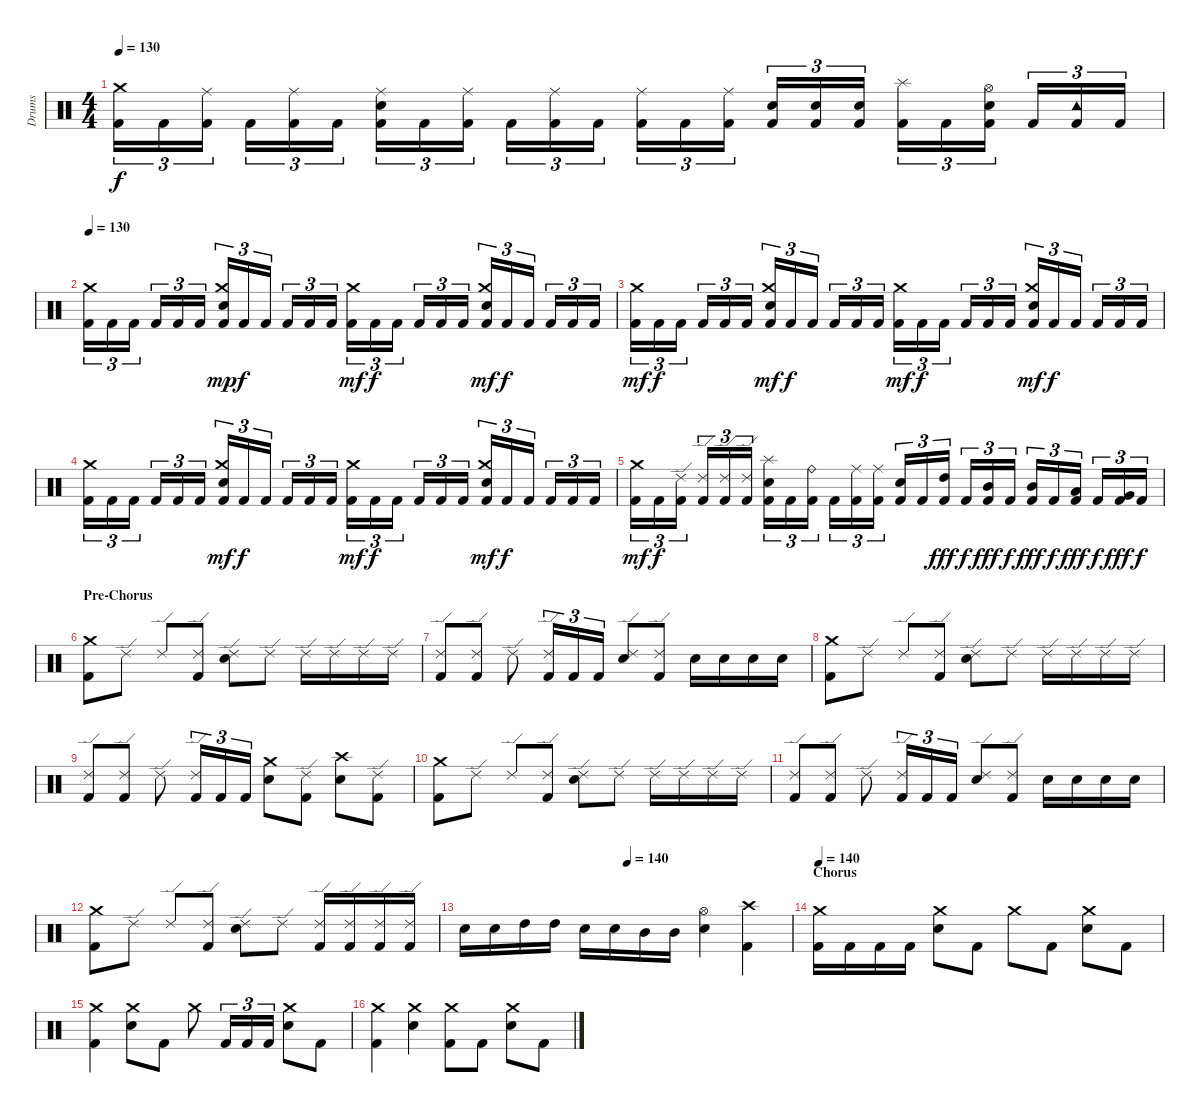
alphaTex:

\track ("Drums" "Drums") {instrument percussion}
\staff {score}
\articulation defaults
\ts (4 4)
\tempo 130
\clef neutral
\ks c
("Kick (hit) 2" "Crash medium (hit)").16{tu (3 2) dy f} "Kick (hit) 2".16{tu (3 2)} ("Kick (hit) 2" "Ride (middle)").16{tu (3 2)} "Kick (hit) 2".16{tu (3 2)} ("Kick (hit) 2" "Ride (middle)").16{tu (3 2)} "Kick (hit) 2".16{tu (3 2)} ("Kick (hit) 2" "Electric Snare (hit)" "Ride (middle)").16{tu (3 2)} "Kick (hit) 2".16{tu (3 2)} ("Kick (hit) 2" "Ride (middle)").16{tu (3 2)} "Kick (hit) 2".16{tu (3 2)} ("Kick (hit) 2" "Ride (middle)").16{tu (3 2)} "Kick (hit) 2".16{tu (3 2)} ("Kick (hit) 2" "Ride (middle)").16{tu (3 2)} "Kick (hit) 2".16{tu (3 2)} ("Kick (hit) 2" "Ride (middle)").16{tu (3 2)} ("Kick (hit) 2" "Electric Snare (hit)").16{tu (3 2)} ("Kick (hit) 2" "Electric Snare (hit)").16{tu (3 2)} ("Kick (hit) 2" "Electric Snare (hit)").16{tu (3 2)} ("Kick (hit) 2" "Splash (hit)").16{tu (3 2)} "Kick (hit) 2".16{tu (3 2)} ("Kick (hit) 2" "Electric Snare (hit)" "Hi-Hat (open)").16{tu (3 2)} "Kick (hit) 2".16{tu (3 2)} ("Kick (hit) 2" "Tambourine (hit)").16{tu (3 2)} "Kick (hit) 2".16{tu (3 2)} |
\tempo 130
("Kick (hit) 2" "Crash medium (hit)").16{tu (3 2)} "Kick (hit) 2".16{tu (3 2)} "Kick (hit) 2".16{tu (3 2)} "Kick (hit) 2".16{tu (3 2)} "Kick (hit) 2".16{tu (3 2)} "Kick (hit) 2".16{tu (3 2)} ("Kick (hit) 2" "Electric Snare (hit)" "Crash medium (hit)").16{tu (3 2) dy mp} "Kick (hit) 2".16{tu (3 2) dy f} "Kick (hit) 2".16{tu (3 2)} "Kick (hit) 2".16{tu (3 2)} "Kick (hit) 2".16{tu (3 2)} "Kick (hit) 2".16{tu (3 2)} ("Kick (hit) 2" "Crash medium (hit)").16{tu (3 2) dy mf} "Kick (hit) 2".16{tu (3 2) dy f} "Kick (hit) 2".16{tu (3 2)} "Kick (hit) 2".16{tu (3 2)} "Kick (hit) 2".16{tu (3 2)} "Kick (hit) 2".16{tu (3 2)} ("Kick (hit) 2" "Electric Snare (hit)" "Crash medium (hit)").16{tu (3 2) dy mf} "Kick (hit) 2".16{tu (3 2) dy f} "Kick (hit) 2".16{tu (3 2)} "Kick (hit) 2".16{tu (3 2)} "Kick (hit) 2".16{tu (3 2)} "Kick (hit) 2".16{tu (3 2)} |
("Kick (hit) 2" "Crash medium (hit)").16{tu (3 2) dy mf} "Kick (hit) 2".16{tu (3 2) dy f} "Kick (hit) 2".16{tu (3 2)} "Kick (hit) 2".16{tu (3 2)} "Kick (hit) 2".16{tu (3 2)} "Kick (hit) 2".16{tu (3 2)} ("Kick (hit) 2" "Electric Snare (hit)" "Crash medium (hit)").16{tu (3 2) dy mf} "Kick (hit) 2".16{tu (3 2) dy f} "Kick (hit) 2".16{tu (3 2)} "Kick (hit) 2".16{tu (3 2)} "Kick (hit) 2".16{tu (3 2)} "Kick (hit) 2".16{tu (3 2)} ("Kick (hit) 2" "Crash medium (hit)").16{tu (3 2) dy mf} "Kick (hit) 2".16{tu (3 2) dy f} "Kick (hit) 2".16{tu (3 2)} "Kick (hit) 2".16{tu (3 2)} "Kick (hit) 2".16{tu (3 2)} "Kick (hit) 2".16{tu (3 2)} ("Kick (hit) 2" "Electric Snare (hit)" "Crash medium (hit)").16{tu (3 2) dy mf} "Kick (hit) 2".16{tu (3 2) dy f} "Kick (hit) 2".16{tu (3 2)} "Kick (hit) 2".16{tu (3 2)} "Kick (hit) 2".16{tu (3 2)} "Kick (hit) 2".16{tu (3 2)} |
("Kick (hit) 2" "Crash medium (hit)").16{tu (3 2)} "Kick (hit) 2".16{tu (3 2)} "Kick (hit) 2".16{tu (3 2)} "Kick (hit) 2".16{tu (3 2)} "Kick (hit) 2".16{tu (3 2)} "Kick (hit) 2".16{tu (3 2)} ("Kick (hit) 2" "Electric Snare (hit)" "Crash medium (hit)").16{tu (3 2) dy mf} "Kick (hit) 2".16{tu (3 2) dy f} "Kick (hit) 2".16{tu (3 2)} "Kick (hit) 2".16{tu (3 2)} "Kick (hit) 2".16{tu (3 2)} "Kick (hit) 2".16{tu (3 2)} ("Kick (hit) 2" "Crash medium (hit)").16{tu (3 2) dy mf} "Kick (hit) 2".16{tu (3 2) dy f} "Kick (hit) 2".16{tu (3 2)} "Kick (hit) 2".16{tu (3 2)} "Kick (hit) 2".16{tu (3 2)} "Kick (hit) 2".16{tu (3 2)} ("Kick (hit) 2" "Electric Snare (hit)" "Crash medium (hit)").16{tu (3 2) dy mf} "Kick (hit) 2".16{tu (3 2) dy f} "Kick (hit) 2".16{tu (3 2)} "Kick (hit) 2".16{tu (3 2)} "Kick (hit) 2".16{tu (3 2)} "Kick (hit) 2".16{tu (3 2)} |
("Kick (hit) 2" "Crash medium (hit)").16{tu (3 2) dy mf} "Kick (hit) 2".16{tu (3 2) dy f} ("Kick (hit) 2" "Ride (edge) 2").16{tu (3 2)} ("Kick (hit) 2" "Ride (edge) 2").16{tu (3 2)} ("Kick (hit) 2" "Ride (edge) 2").16{tu (3 2)} ("Kick (hit) 2" "Ride (edge) 2").16{tu (3 2)} ("Kick (hit) 2" "Electric Snare (hit)" "Splash (hit)").16{tu (3 2)} "Kick (hit) 2".16{tu (3 2)} ("Kick (hit) 2" "Ride (bell)").16{tu (3 2)} "Kick (hit) 2".16{tu (3 2)} ("Kick (hit) 2" "Ride (middle)").16{tu (3 2)} ("Kick (hit) 2" "Ride (middle)").16{tu (3 2)} ("Kick (hit) 2" "Electric Snare (hit)").16{tu (3 2)} "Kick (hit) 2".16{tu (3 2)} ("Kick (hit) 2" "High Tom (hit)").16{tu (3 2) dy fff} "Kick (hit) 2".16{tu (3 2) dy f} ("Kick (hit) 2" "Mid Tom (hit)").16{tu (3 2) dy fff} "Kick (hit) 2".16{tu (3 2) dy f} ("Kick (hit) 2" "Mid Tom (hit)").16{tu (3 2) dy fff} "Kick (hit) 2".16{tu (3 2) dy f} ("Kick (hit) 2" "Low Tom (hit)").16{tu (3 2) dy fff} "Kick (hit) 2".16{tu (3 2) dy f} ("Kick (hit) 2" "Very Low Tom (hit)").16{tu (3 2) dy fff} "Kick (hit) 2".16{tu (3 2) dy f} |
\section ("" "Pre-Chorus")
("Kick (hit) 2" "Crash medium (hit)").8 "Ride (edge) 2".8 "Ride (edge) 2".8 ("Kick (hit) 2" "Ride (edge) 2").8 ("Electric Snare (hit)" "Ride (edge) 2").8 "Ride (edge) 2".8 "Ride (edge) 2".16 "Ride (edge) 2".16 "Ride (edge) 2".16 "Ride (edge) 2".16 |
("Kick (hit) 2" "Ride (edge) 2").8 ("Kick (hit) 2" "Ride (edge) 2").8 "Ride (edge) 2".8 ("Kick (hit) 2" "Ride (edge) 2").16{tu (3 2)} "Kick (hit) 2".16{tu (3 2)} "Kick (hit) 2".16{tu (3 2)} ("Electric Snare (hit)" "Ride (edge) 2").8 ("Kick (hit) 2" "Ride (edge) 2").8 "Electric Snare (hit)".16 "Electric Snare (hit)".16 "Electric Snare (hit)".16 "Electric Snare (hit)".16 |
("Kick (hit) 2" "Crash medium (hit)").8 "Ride (edge) 2".8 "Ride (edge) 2".8 ("Kick (hit) 2" "Ride (edge) 2").8 ("Electric Snare (hit)" "Ride (edge) 2").8 "Ride (edge) 2".8 "Ride (edge) 2".16 "Ride (edge) 2".16 "Ride (edge) 2".16 "Ride (edge) 2".16 |
("Kick (hit) 2" "Ride (edge) 2").8 ("Kick (hit) 2" "Ride (edge) 2").8 "Ride (edge) 2".8 ("Kick (hit) 2" "Ride (edge) 2").16{tu (3 2)} "Kick (hit) 2".16{tu (3 2)} "Kick (hit) 2".16{tu (3 2)} ("Electric Snare (hit)" "Crash medium (hit)").8 ("Kick (hit) 2" "Ride (edge) 2").8 ("Electric Snare (hit)" "Crash high (hit)").8 ("Kick (hit) 2" "Ride (edge) 2").8 |
("Kick (hit) 2" "Crash medium (hit)").8 "Ride (edge) 2".8 "Ride (edge) 2".8 ("Kick (hit) 2" "Ride (edge) 2").8 ("Electric Snare (hit)" "Ride (edge) 2").8 "Ride (edge) 2".8 "Ride (edge) 2".16 "Ride (edge) 2".16 "Ride (edge) 2".16 "Ride (edge) 2".16 |
("Kick (hit) 2" "Ride (edge) 2").8 ("Kick (hit) 2" "Ride (edge) 2").8 "Ride (edge) 2".8 ("Kick (hit) 2" "Ride (edge) 2").16{tu (3 2)} "Kick (hit) 2".16{tu (3 2)} "Kick (hit) 2".16{tu (3 2)} ("Electric Snare (hit)" "Ride (edge) 2").8 ("Kick (hit) 2" "Ride (edge) 2").8 "Electric Snare (hit)".16 "Electric Snare (hit)".16 "Electric Snare (hit)".16 "Electric Snare (hit)".16 |
("Kick (hit) 2" "Crash medium (hit)").8 "Ride (edge) 2".8 "Ride (edge) 2".8 ("Kick (hit) 2" "Ride (edge) 2").8 ("Electric Snare (hit)" "Ride (edge) 2").8 "Ride (edge) 2".8 ("Kick (hit) 2" "Ride (edge) 2").16 ("Kick (hit) 2" "Ride (edge) 2").16 ("Kick (hit) 2" "Ride (edge) 2").16 ("Kick (hit) 2" "Ride (edge) 2").16 |
\tempo (140 0.5)
"Electric Snare (hit)".16 "Electric Snare (hit)".16 "High Tom (hit)".16 "High Tom (hit)".16 "Electric Snare (hit)".16 "Electric Snare (hit)".16 "Mid Tom (hit)".16 "Mid Tom (hit)".16 ("Electric Snare (hit)" "Hi-Hat (open)").4 ("Kick (hit) 2" "Crash high (hit)").4 |
\section ("" "Chorus")
\tempo 140
("Kick (hit) 2" "Crash medium (hit)").16 "Kick (hit) 2".16 "Kick (hit) 2".16 "Kick (hit) 2".16 ("Electric Snare (hit)" "Crash medium (hit)").8 "Kick (hit) 2".8 "Crash medium (hit)".8 "Kick (hit) 2".8 ("Electric Snare (hit)" "Crash medium (hit)").8 "Kick (hit) 2".8 |
("Kick (hit) 2" "Crash medium (hit)").4 ("Electric Snare (hit)" "Crash medium (hit)").8 "Kick (hit) 2".8 "Crash medium (hit)".8 "Kick (hit) 2".16{tu (3 2)} "Kick (hit) 2".16{tu (3 2)} "Kick (hit) 2".16{tu (3 2)} ("Electric Snare (hit)" "Crash medium (hit)").8 "Kick (hit) 2".8 |
("Kick (hit) 2" "Crash medium (hit)").4 ("Electric Snare (hit)" "Crash medium (hit)").4 ("Kick (hit) 2" "Crash medium (hit)").8 "Kick (hit) 2".8 ("Electric Snare (hit)" "Crash medium (hit)").8 "Kick (hit) 2".8
